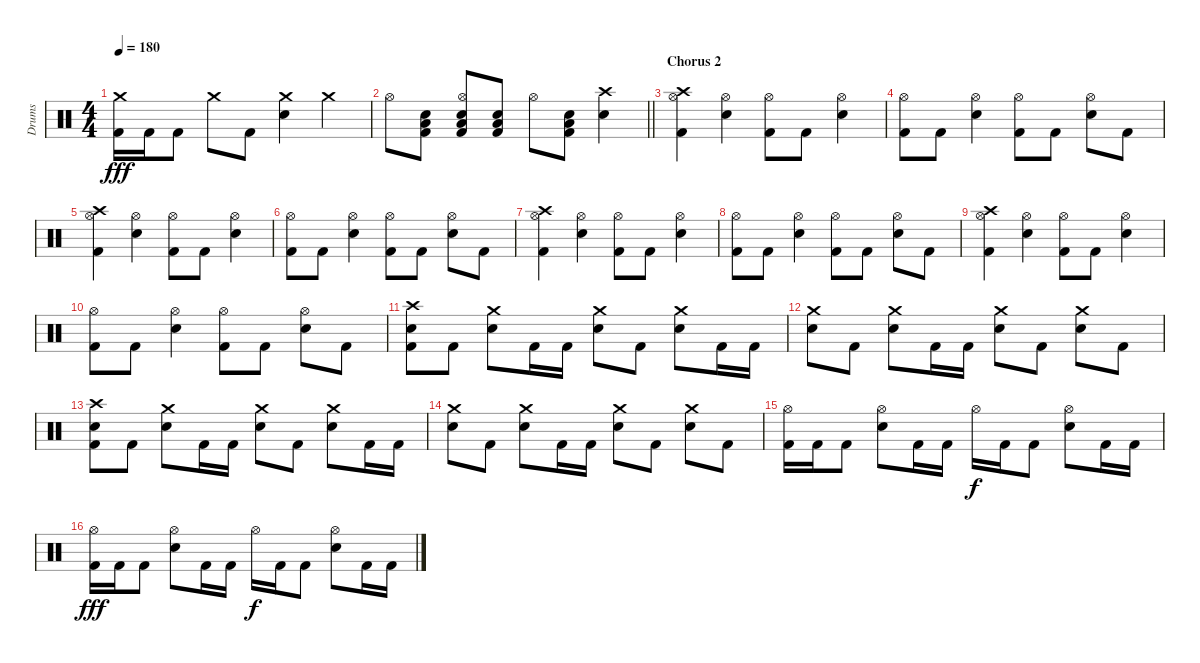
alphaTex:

\track ("Drums" "Drums") {instrument percussion}
\staff {score}
\articulation defaults
\ts (4 4)
\tempo 180
\clef neutral
\ks c
("Crash medium (hit)" "Kick (hit) 2").16{dy fff} "Kick (hit) 2".16 "Kick (hit) 2".8 "Crash medium (hit)".8 "Kick (hit) 2".8 ("Crash medium (hit)" "Snare (hit) 2").4 "Crash medium (hit)".4 |
\barLineRight lightlight "Hi-Hat (open)".8
("Low Floor Tom (hit)" "Snare (hit) 2" "Kick (hit) 2").8 ("Hi-Hat (open)" "Low Floor Tom (hit)" "Snare (hit) 2" "Kick (hit) 2").8 ("Low Floor Tom (hit)" "Snare (hit) 2" "Kick (hit) 2").8 "Hi-Hat (open)".8 ("Low Floor Tom (hit)" "Snare (hit) 2" "Kick (hit) 2").8 ("Crash high (hit)" "Snare (hit) 2").4 |
\section ("" "Chorus 2")
("Crash high (hit)" "Hi-Hat (open)" "Kick (hit) 2").4 ("Hi-Hat (open)" "Snare (hit) 2").4 ("Hi-Hat (open)" "Kick (hit) 2").8 "Kick (hit) 2".8 ("Hi-Hat (open)" "Snare (hit) 2").4 |
("Hi-Hat (open)" "Kick (hit) 2").8 "Kick (hit) 2".8 ("Hi-Hat (open)" "Snare (hit) 2").4 ("Hi-Hat (open)" "Kick (hit) 2").8 "Kick (hit) 2".8 ("Hi-Hat (open)" "Snare (hit) 2").8 "Kick (hit) 2".8 |
("Crash high (hit)" "Hi-Hat (open)" "Kick (hit) 2").4 ("Hi-Hat (open)" "Snare (hit) 2").4 ("Hi-Hat (open)" "Kick (hit) 2").8 "Kick (hit) 2".8 ("Hi-Hat (open)" "Snare (hit) 2").4 |
("Hi-Hat (open)" "Kick (hit) 2").8 "Kick (hit) 2".8 ("Hi-Hat (open)" "Snare (hit) 2").4 ("Hi-Hat (open)" "Kick (hit) 2").8 "Kick (hit) 2".8 ("Hi-Hat (open)" "Snare (hit) 2").8 "Kick (hit) 2".8 |
("Crash high (hit)" "Hi-Hat (open)" "Kick (hit) 2").4 ("Hi-Hat (open)" "Snare (hit) 2").4 ("Hi-Hat (open)" "Kick (hit) 2").8 "Kick (hit) 2".8 ("Hi-Hat (open)" "Snare (hit) 2").4 |
("Hi-Hat (open)" "Kick (hit) 2").8 "Kick (hit) 2".8 ("Hi-Hat (open)" "Snare (hit) 2").4 ("Hi-Hat (open)" "Kick (hit) 2").8 "Kick (hit) 2".8 ("Hi-Hat (open)" "Snare (hit) 2").8 "Kick (hit) 2".8 |
("Crash high (hit)" "Hi-Hat (open)" "Kick (hit) 2").4 ("Hi-Hat (open)" "Snare (hit) 2").4 ("Hi-Hat (open)" "Kick (hit) 2").8 "Kick (hit) 2".8 ("Hi-Hat (open)" "Snare (hit) 2").4 |
("Hi-Hat (open)" "Kick (hit) 2").8 "Kick (hit) 2".8 ("Hi-Hat (open)" "Snare (hit) 2").4 ("Hi-Hat (open)" "Kick (hit) 2").8 "Kick (hit) 2".8 ("Hi-Hat (open)" "Snare (hit) 2").8 "Kick (hit) 2".8 |
("Crash high (hit)" "Snare (hit) 2" "Kick (hit) 2").8 "Kick (hit) 2".8 ("Crash medium (hit)" "Snare (hit) 2").8 "Kick (hit) 2".16 "Kick (hit) 2".16 ("Crash medium (hit)" "Snare (hit) 2").8 "Kick (hit) 2".8 ("Crash medium (hit)" "Snare (hit) 2").8 "Kick (hit) 2".16 "Kick (hit) 2".16 |
("Crash medium (hit)" "Snare (hit) 2").8 "Kick (hit) 2".8 ("Crash medium (hit)" "Snare (hit) 2").8 "Kick (hit) 2".16 "Kick (hit) 2".16 ("Crash medium (hit)" "Snare (hit) 2").8 "Kick (hit) 2".8 ("Crash medium (hit)" "Snare (hit) 2").8 "Kick (hit) 2".8 |
("Crash high (hit)" "Snare (hit) 2" "Kick (hit) 2").8 "Kick (hit) 2".8 ("Crash medium (hit)" "Snare (hit) 2").8 "Kick (hit) 2".16 "Kick (hit) 2".16 ("Crash medium (hit)" "Snare (hit) 2").8 "Kick (hit) 2".8 ("Crash medium (hit)" "Snare (hit) 2").8 "Kick (hit) 2".16 "Kick (hit) 2".16 |
("Crash medium (hit)" "Snare (hit) 2").8 "Kick (hit) 2".8 ("Crash medium (hit)" "Snare (hit) 2").8 "Kick (hit) 2".16 "Kick (hit) 2".16 ("Crash medium (hit)" "Snare (hit) 2").8 "Kick (hit) 2".8 ("Crash medium (hit)" "Snare (hit) 2").8 "Kick (hit) 2".8 |
("Hi-Hat (open)" "Kick (hit) 2").16 "Kick (hit) 2".16 "Kick (hit) 2".8 ("Hi-Hat (open)" "Snare (hit) 2").8 "Kick (hit) 2".16 "Kick (hit) 2".16 "Hi-Hat (open)".16{dy f} "Kick (hit) 2".16 "Kick (hit) 2".8 ("Hi-Hat (open)" "Snare (hit) 2").8 "Kick (hit) 2".16 "Kick (hit) 2".16 |
("Hi-Hat (open)" "Kick (hit) 2").16{dy fff} "Kick (hit) 2".16 "Kick (hit) 2".8 ("Hi-Hat (open)" "Snare (hit) 2").8 "Kick (hit) 2".16 "Kick (hit) 2".16 "Hi-Hat (open)".16{dy f} "Kick (hit) 2".16 "Kick (hit) 2".8 ("Hi-Hat (open)" "Snare (hit) 2").8 "Kick (hit) 2".16 "Kick (hit) 2".16
